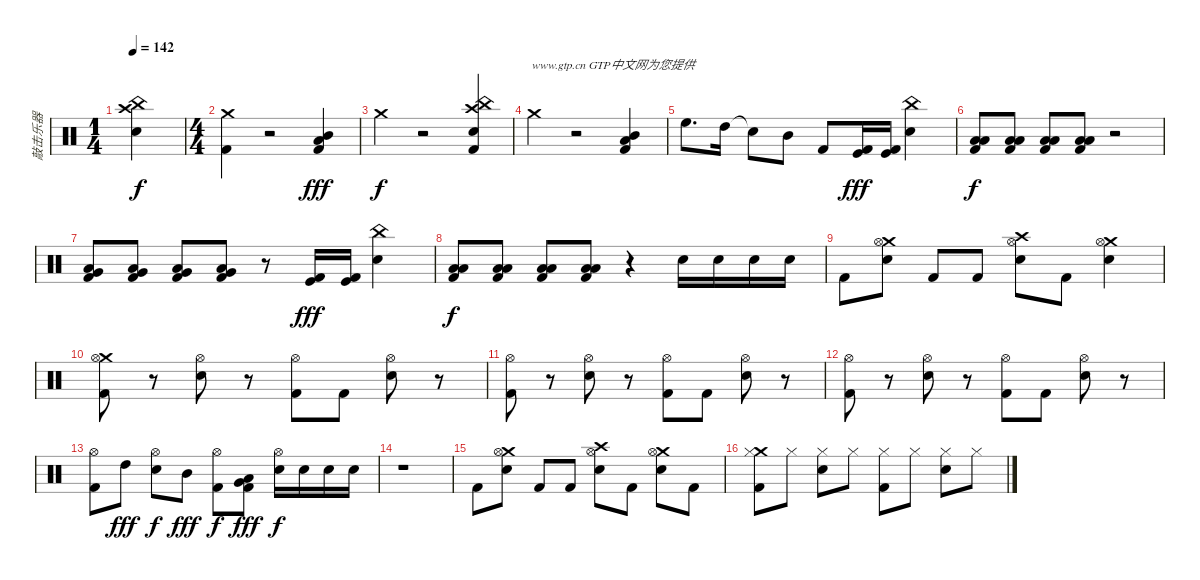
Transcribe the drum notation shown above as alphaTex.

\track ("敲击乐器" "敲击乐器") {instrument percussion}
\staff {score}
\articulation defaults
\ts (1 4)
\tempo 142
\clef neutral
\ks c
("Snare (hit) 2" "Crash high (hit)" "China (hit)").4{dy f} |
\ts (4 4)
("Crash medium (hit)" "Kick (hit) 2").4 r.2 ("Mid Tom (hit)" "Low Tom (hit)" "Kick (hit) 2").4{dy fff} |
"Crash medium (hit)".4{dy f} r.2 ("Snare (hit) 2" "Crash high (hit)" "China (hit)" "Kick (hit) 2").4{txt "                    www.gtp.cn GTP中文网为您提供"} |
"Crash medium (hit)".4 r.2 ("Mid Tom (hit)" "Low Tom (hit)" "Kick (hit) 2").4 |
"High Floor Tom (hit)".8{d} "High Tom (hit)".16 "Snare (hit)"{t}.8 "Mid Tom (hit)".8 "Kick (hit) 2".8 ("Kick (hit)" "Kick (hit) 2").16{dy fff} ("Kick (hit)" "Kick (hit) 2").16 ("Snare (hit) 2" "China (hit)").4 |
("Low Tom (hit)" "Low Floor Tom (hit)" "Kick (hit) 2").8{dy f} ("Low Tom (hit)" "Low Floor Tom (hit)" "Kick (hit) 2").8 ("Low Tom (hit)" "Low Floor Tom (hit)" "Kick (hit) 2").8 ("Low Tom (hit)" "Low Floor Tom (hit)" "Kick (hit) 2").8 r.2 |
("Very Low Tom (hit)" "Low Floor Tom (hit)" "Kick (hit) 2").8 ("Very Low Tom (hit)" "Low Floor Tom (hit)" "Kick (hit) 2").8 ("Very Low Tom (hit)" "Low Floor Tom (hit)" "Kick (hit) 2").8 ("Very Low Tom (hit)" "Low Floor Tom (hit)" "Kick (hit) 2").8 r.8 ("Kick (hit)" "Kick (hit) 2").16{dy fff} ("Kick (hit)" "Kick (hit) 2").16 ("Snare (hit) 2" "China (hit)").4 |
("Low Tom (hit)" "Low Floor Tom (hit)" "Kick (hit) 2").8{dy f} ("Low Tom (hit)" "Low Floor Tom (hit)" "Kick (hit) 2").8 ("Low Tom (hit)" "Low Floor Tom (hit)" "Kick (hit) 2").8 ("Low Tom (hit)" "Low Floor Tom (hit)" "Kick (hit) 2").8 r.4 "Snare (hit) 2".16 "Snare (hit) 2".16 "Snare (hit) 2".16 "Snare (hit) 2".16 |
"Kick (hit) 2".8 ("Snare (hit) 2" "Crash medium (hit)" "Hi-Hat (open)").8 "Kick (hit) 2".8 "Kick (hit) 2".8 ("Snare (hit) 2" "Crash high (hit)" "Hi-Hat (open)").8 "Kick (hit) 2".8 ("Snare (hit) 2" "Crash medium (hit)" "Hi-Hat (open)").4 |
("Crash medium (hit)" "Hi-Hat (open)" "Kick (hit) 2").8 r.8 ("Snare (hit) 2" "Hi-Hat (open)").8 r.8 ("Hi-Hat (open)" "Kick (hit) 2").8 "Kick (hit) 2".8 ("Snare (hit) 2" "Hi-Hat (open)").8 r.8 |
("Hi-Hat (open)" "Kick (hit) 2").8 r.8 ("Snare (hit) 2" "Hi-Hat (open)").8 r.8 ("Hi-Hat (open)" "Kick (hit) 2").8 "Kick (hit) 2".8 ("Snare (hit) 2" "Hi-Hat (open)").8 r.8 |
("Hi-Hat (open)" "Kick (hit) 2").8 r.8 ("Snare (hit) 2" "Hi-Hat (open)").8 r.8 ("Hi-Hat (open)" "Kick (hit) 2").8 "Kick (hit) 2".8 ("Snare (hit) 2" "Hi-Hat (open)").8 r.8 |
("Hi-Hat (open)" "Kick (hit) 2").8 "High Tom (hit)".8{dy fff} ("Snare (hit) 2" "Hi-Hat (open)").8{dy f} "Mid Tom (hit)".8{dy fff} ("Hi-Hat (open)" "Kick (hit) 2").8{dy f} ("Very Low Tom (hit)" "Low Floor Tom (hit)" "Kick (hit) 2").8{dy fff} ("Snare (hit) 2" "Hi-Hat (open)").16{dy f} "Snare (hit) 2".16 "Snare (hit) 2".16 "Snare (hit) 2".16 |
r.1 |
"Kick (hit) 2".8 ("Snare (hit) 2" "Crash medium (hit)" "Hi-Hat (open)").8 "Kick (hit) 2".8 "Kick (hit) 2".8 ("Snare (hit) 2" "Crash high (hit)" "Hi-Hat (open)").8 "Kick (hit) 2".8 ("Snare (hit) 2" "Crash medium (hit)" "Hi-Hat (open)").8 "Kick (hit) 2".8 |
("Crash medium (hit)" "Hi-Hat (closed)" "Kick (hit) 2").8 "Hi-Hat (closed)".8 ("Snare (hit) 2" "Hi-Hat (closed)").8 "Hi-Hat (closed)".8 ("Hi-Hat (closed)" "Kick (hit) 2").8 "Hi-Hat (closed)".8 ("Snare (hit) 2" "Hi-Hat (closed)").8 "Hi-Hat (closed)".8
